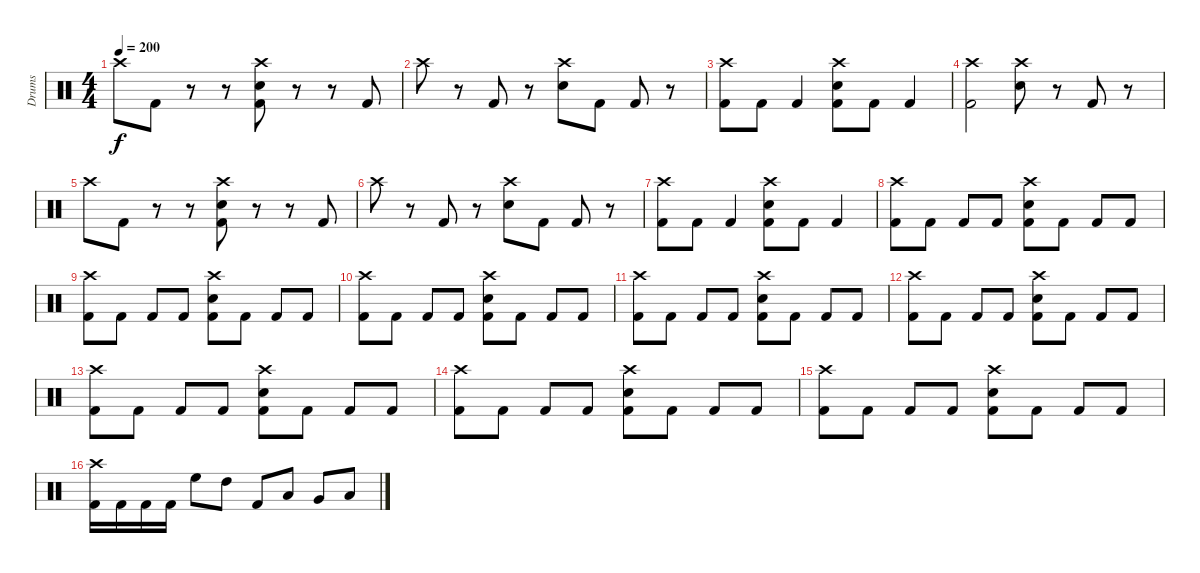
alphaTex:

\track ("Drums" "Drums") {instrument percussion}
\staff {score}
\articulation defaults
\ts (4 4)
\tempo 200
\clef neutral
\ks c "Crash high (hit)".8{dy f} "Kick (hit) 2".8
r.8 r.8 ("Crash high (hit)" "Electric Snare (hit)" "Kick (hit) 2").8 r.8 r.8 "Kick (hit) 2".8 |
"Crash high (hit)".8 r.8 "Kick (hit) 2".8 r.8 ("Crash high (hit)" "Electric Snare (hit)").8 "Kick (hit) 2".8 "Kick (hit) 2".8 r.8 |
("Crash high (hit)" "Kick (hit) 2").8 "Kick (hit) 2".8 "Kick (hit) 2".4 ("Crash high (hit)" "Electric Snare (hit)" "Kick (hit) 2").8 "Kick (hit) 2".8 "Kick (hit) 2".4 |
("Crash high (hit)" "Kick (hit) 2").2 ("Crash high (hit)" "Electric Snare (hit)").8 r.8 "Kick (hit) 2".8 r.8 |
"Crash high (hit)".8 "Kick (hit) 2".8 r.8 r.8 ("Crash high (hit)" "Electric Snare (hit)" "Kick (hit) 2").8 r.8 r.8 "Kick (hit) 2".8 |
"Crash high (hit)".8 r.8 "Kick (hit) 2".8 r.8 ("Crash high (hit)" "Electric Snare (hit)").8 "Kick (hit) 2".8 "Kick (hit) 2".8 r.8 |
("Crash high (hit)" "Kick (hit) 2").8 "Kick (hit) 2".8 "Kick (hit) 2".4 ("Crash high (hit)" "Electric Snare (hit)" "Kick (hit) 2").8 "Kick (hit) 2".8 "Kick (hit) 2".4 |
("Crash high (hit)" "Kick (hit) 2").8 "Kick (hit) 2".8 "Kick (hit) 2".8 "Kick (hit) 2".8 ("Crash high (hit)" "Electric Snare (hit)" "Kick (hit) 2").8 "Kick (hit) 2".8 "Kick (hit) 2".8 "Kick (hit) 2".8 |
("Crash high (hit)" "Kick (hit) 2").8 "Kick (hit) 2".8 "Kick (hit) 2".8 "Kick (hit) 2".8 ("Crash high (hit)" "Electric Snare (hit)" "Kick (hit) 2").8 "Kick (hit) 2".8 "Kick (hit) 2".8 "Kick (hit) 2".8 |
("Crash high (hit)" "Kick (hit) 2").8 "Kick (hit) 2".8 "Kick (hit) 2".8 "Kick (hit) 2".8 ("Crash high (hit)" "Electric Snare (hit)" "Kick (hit) 2").8 "Kick (hit) 2".8 "Kick (hit) 2".8 "Kick (hit) 2".8 |
("Crash high (hit)" "Kick (hit) 2").8 "Kick (hit) 2".8 "Kick (hit) 2".8 "Kick (hit) 2".8 ("Crash high (hit)" "Electric Snare (hit)" "Kick (hit) 2").8 "Kick (hit) 2".8 "Kick (hit) 2".8 "Kick (hit) 2".8 |
("Crash high (hit)" "Kick (hit) 2").8 "Kick (hit) 2".8 "Kick (hit) 2".8 "Kick (hit) 2".8 ("Crash high (hit)" "Electric Snare (hit)" "Kick (hit) 2").8 "Kick (hit) 2".8 "Kick (hit) 2".8 "Kick (hit) 2".8 |
("Crash high (hit)" "Kick (hit) 2").8 "Kick (hit) 2".8 "Kick (hit) 2".8 "Kick (hit) 2".8 ("Crash high (hit)" "Electric Snare (hit)" "Kick (hit) 2").8 "Kick (hit) 2".8 "Kick (hit) 2".8 "Kick (hit) 2".8 |
("Crash high (hit)" "Kick (hit) 2").8 "Kick (hit) 2".8 "Kick (hit) 2".8 "Kick (hit) 2".8 ("Crash high (hit)" "Electric Snare (hit)" "Kick (hit) 2").8 "Kick (hit) 2".8 "Kick (hit) 2".8 "Kick (hit) 2".8 |
("Crash high (hit)" "Kick (hit) 2").8 "Kick (hit) 2".8 "Kick (hit) 2".8 "Kick (hit) 2".8 ("Crash high (hit)" "Electric Snare (hit)" "Kick (hit) 2").8 "Kick (hit) 2".8 "Kick (hit) 2".8 "Kick (hit) 2".8 |
("Crash high (hit)" "Kick (hit) 2").16 "Kick (hit) 2".16 "Kick (hit) 2".16 "Kick (hit) 2".16 "High Floor Tom (hit)".8 "High Tom (hit)".8 "Kick (hit) 2".8 "Low Tom (hit)".8 "Very Low Tom (hit)".8 "Low Tom (hit)".8
